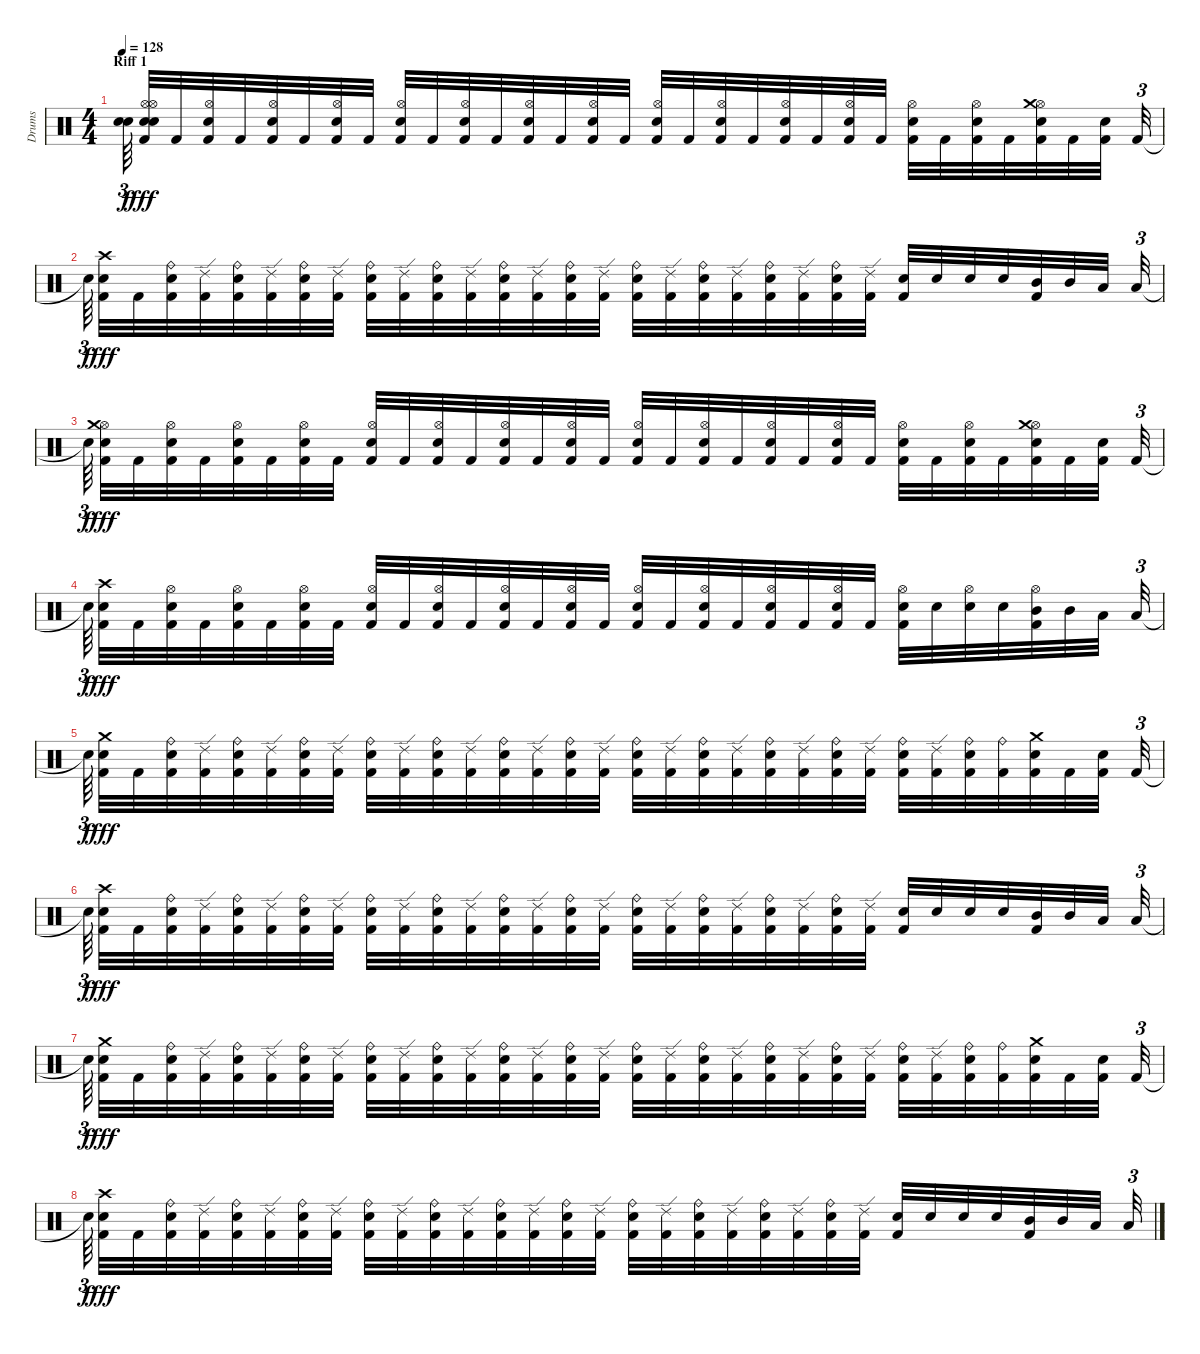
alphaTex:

\track ("Drums" "Drums") {instrument percussion}
\staff {score}
\articulation defaults
\ts (4 4)
\section ("" "Riff 1")
\tempo 128
\clef neutral
\ks c
("Snare (hit)"{t} "Snare (hit)"{t}).64{tu (3 2) dy f beam splitsecondary} ("Snare (hit) 2" "Hi-Hat (open)" "Kick (hit) 2" "Snare (hit) 2" "Hi-Hat (open)").32{dy fff} "Kick (hit) 2".32 ("Kick (hit) 2" "Snare (hit) 2" "Hi-Hat (open)").32 "Kick (hit) 2".32 ("Kick (hit) 2" "Snare (hit) 2" "Hi-Hat (open)").32 "Kick (hit) 2".32 ("Kick (hit) 2" "Snare (hit) 2" "Hi-Hat (open)").32 "Kick (hit) 2".32 ("Kick (hit) 2" "Snare (hit) 2" "Hi-Hat (open)").32 "Kick (hit) 2".32 ("Kick (hit) 2" "Snare (hit) 2" "Hi-Hat (open)").32 "Kick (hit) 2".32 ("Kick (hit) 2" "Snare (hit) 2" "Hi-Hat (open)").32 "Kick (hit) 2".32 ("Kick (hit) 2" "Snare (hit) 2" "Hi-Hat (open)").32 "Kick (hit) 2".32 ("Kick (hit) 2" "Snare (hit) 2" "Hi-Hat (open)").32 "Kick (hit) 2".32 ("Kick (hit) 2" "Snare (hit) 2" "Hi-Hat (open)").32 "Kick (hit) 2".32 ("Kick (hit) 2" "Snare (hit) 2" "Hi-Hat (open)").32 "Kick (hit) 2".32 ("Kick (hit) 2" "Snare (hit) 2" "Hi-Hat (open)").32 "Kick (hit) 2".32 ("Kick (hit) 2" "Snare (hit) 2" "Hi-Hat (open)").32 "Kick (hit) 2".32 ("Kick (hit) 2" "Snare (hit) 2" "Hi-Hat (open)").32 "Kick (hit) 2".32 ("Kick (hit) 2" "Snare (hit) 2" "Hi-Hat (open)" "Crash medium (hit)").32 "Kick (hit) 2".32 ("Kick (hit) 2" "Snare (hit) 2").32{beam splitsecondary} "Kick (hit) 2".32{tu (3 2)} |
"Snare (hit)"{t}.64{tu (3 2) dy f beam splitsecondary} ("Kick (hit) 2" "Snare (hit) 2" "Crash high (hit)").32{dy fff} "Kick (hit) 2".32 ("Kick (hit) 2" "Snare (hit) 2" "Ride (bell)").32 ("Kick (hit) 2" "Ride (edge) 2").32 ("Kick (hit) 2" "Snare (hit) 2" "Ride (bell)").32 ("Kick (hit) 2" "Ride (edge) 2").32 ("Kick (hit) 2" "Snare (hit) 2" "Ride (bell)").32 ("Kick (hit) 2" "Ride (edge) 2").32 ("Kick (hit) 2" "Snare (hit) 2" "Ride (bell)").32 ("Kick (hit) 2" "Ride (edge) 2").32 ("Kick (hit) 2" "Snare (hit) 2" "Ride (bell)").32 ("Kick (hit) 2" "Ride (edge) 2").32 ("Kick (hit) 2" "Snare (hit) 2" "Ride (bell)").32 ("Kick (hit) 2" "Ride (edge) 2").32 ("Kick (hit) 2" "Snare (hit) 2" "Ride (bell)").32 ("Kick (hit) 2" "Ride (edge) 2").32 ("Kick (hit) 2" "Snare (hit) 2" "Ride (bell)").32 ("Kick (hit) 2" "Ride (edge) 2").32 ("Kick (hit) 2" "Snare (hit) 2" "Ride (bell)").32 ("Kick (hit) 2" "Ride (edge) 2").32 ("Kick (hit) 2" "Snare (hit) 2" "Ride (bell)").32 ("Kick (hit) 2" "Ride (edge) 2").32 ("Kick (hit) 2" "Snare (hit) 2" "Ride (bell)").32 ("Kick (hit) 2" "Ride (edge) 2").32 ("Kick (hit) 2" "Snare (hit) 2").32 "Snare (hit) 2".32 "Snare (hit) 2".32 "Snare (hit) 2".32 ("Kick (hit) 2" "Mid Tom (hit)").32 "Mid Tom (hit)".32 "Low Tom (hit)".32{beam splitsecondary} "Low Tom (hit)".32{tu (3 2)} |
"Snare (hit)"{t}.64{tu (3 2) dy f beam splitsecondary} ("Kick (hit) 2" "Snare (hit) 2" "Hi-Hat (open)" "Crash medium (hit)").32{dy fff} "Kick (hit) 2".32 ("Kick (hit) 2" "Snare (hit) 2" "Hi-Hat (open)").32 "Kick (hit) 2".32 ("Kick (hit) 2" "Snare (hit) 2" "Hi-Hat (open)").32 "Kick (hit) 2".32 ("Kick (hit) 2" "Snare (hit) 2" "Hi-Hat (open)").32 "Kick (hit) 2".32 ("Kick (hit) 2" "Snare (hit) 2" "Hi-Hat (open)").32 "Kick (hit) 2".32 ("Kick (hit) 2" "Snare (hit) 2" "Hi-Hat (open)").32 "Kick (hit) 2".32 ("Kick (hit) 2" "Snare (hit) 2" "Hi-Hat (open)").32 "Kick (hit) 2".32 ("Kick (hit) 2" "Snare (hit) 2" "Hi-Hat (open)").32 "Kick (hit) 2".32 ("Kick (hit) 2" "Snare (hit) 2" "Hi-Hat (open)").32 "Kick (hit) 2".32 ("Kick (hit) 2" "Snare (hit) 2" "Hi-Hat (open)").32 "Kick (hit) 2".32 ("Kick (hit) 2" "Snare (hit) 2" "Hi-Hat (open)").32 "Kick (hit) 2".32 ("Kick (hit) 2" "Snare (hit) 2" "Hi-Hat (open)").32 "Kick (hit) 2".32 ("Kick (hit) 2" "Snare (hit) 2" "Hi-Hat (open)").32 "Kick (hit) 2".32 ("Kick (hit) 2" "Snare (hit) 2" "Hi-Hat (open)").32 "Kick (hit) 2".32 ("Kick (hit) 2" "Snare (hit) 2" "Hi-Hat (open)" "Crash medium (hit)").32 "Kick (hit) 2".32 ("Kick (hit) 2" "Snare (hit) 2").32{beam splitsecondary} "Kick (hit) 2".32{tu (3 2)} |
"Snare (hit)"{t}.64{tu (3 2) dy f beam splitsecondary} ("Kick (hit) 2" "Snare (hit) 2" "Crash high (hit)").32{dy fff} "Kick (hit) 2".32 ("Kick (hit) 2" "Snare (hit) 2" "Hi-Hat (open)").32 "Kick (hit) 2".32 ("Kick (hit) 2" "Snare (hit) 2" "Hi-Hat (open)").32 "Kick (hit) 2".32 ("Kick (hit) 2" "Snare (hit) 2" "Hi-Hat (open)").32 "Kick (hit) 2".32 ("Kick (hit) 2" "Snare (hit) 2" "Hi-Hat (open)").32 "Kick (hit) 2".32 ("Kick (hit) 2" "Snare (hit) 2" "Hi-Hat (open)").32 "Kick (hit) 2".32 ("Kick (hit) 2" "Snare (hit) 2" "Hi-Hat (open)").32 "Kick (hit) 2".32 ("Kick (hit) 2" "Snare (hit) 2" "Hi-Hat (open)").32 "Kick (hit) 2".32 ("Kick (hit) 2" "Snare (hit) 2" "Hi-Hat (open)").32 "Kick (hit) 2".32 ("Kick (hit) 2" "Snare (hit) 2" "Hi-Hat (open)").32 "Kick (hit) 2".32 ("Kick (hit) 2" "Snare (hit) 2" "Hi-Hat (open)").32 "Kick (hit) 2".32 ("Kick (hit) 2" "Snare (hit) 2" "Hi-Hat (open)").32 "Kick (hit) 2".32 ("Kick (hit) 2" "Snare (hit) 2" "Hi-Hat (open)").32 "Snare (hit) 2".32 ("Snare (hit) 2" "Hi-Hat (open)").32 "Snare (hit) 2".32 ("Kick (hit) 2" "Hi-Hat (open)" "Mid Tom (hit)").32 "Mid Tom (hit)".32 "Low Tom (hit)".32{beam splitsecondary} "Low Tom (hit)".32{tu (3 2)} |
"Snare (hit)"{t}.64{tu (3 2) dy f beam splitsecondary} ("Kick (hit) 2" "Snare (hit) 2" "Crash medium (hit)").32{dy fff} "Kick (hit) 2".32 ("Kick (hit) 2" "Snare (hit) 2" "Ride (bell)").32 ("Kick (hit) 2" "Ride (edge) 2").32 ("Kick (hit) 2" "Snare (hit) 2" "Ride (bell)").32 ("Kick (hit) 2" "Ride (edge) 2").32 ("Kick (hit) 2" "Snare (hit) 2" "Ride (bell)").32 ("Kick (hit) 2" "Ride (edge) 2").32 ("Kick (hit) 2" "Snare (hit) 2" "Ride (bell)").32 ("Kick (hit) 2" "Ride (edge) 2").32 ("Kick (hit) 2" "Snare (hit) 2" "Ride (bell)").32 ("Kick (hit) 2" "Ride (edge) 2").32 ("Kick (hit) 2" "Snare (hit) 2" "Ride (bell)").32 ("Kick (hit) 2" "Ride (edge) 2").32 ("Kick (hit) 2" "Snare (hit) 2" "Ride (bell)").32 ("Kick (hit) 2" "Ride (edge) 2").32 ("Kick (hit) 2" "Snare (hit) 2" "Ride (bell)").32 ("Kick (hit) 2" "Ride (edge) 2").32 ("Kick (hit) 2" "Snare (hit) 2" "Ride (bell)").32 ("Kick (hit) 2" "Ride (edge) 2").32 ("Kick (hit) 2" "Snare (hit) 2" "Ride (bell)").32 ("Kick (hit) 2" "Ride (edge) 2").32 ("Kick (hit) 2" "Snare (hit) 2" "Ride (bell)").32 ("Kick (hit) 2" "Ride (edge) 2").32 ("Kick (hit) 2" "Snare (hit) 2" "Ride (bell)").32 ("Kick (hit) 2" "Ride (edge) 2").32 ("Kick (hit) 2" "Snare (hit) 2" "Ride (bell)").32 ("Kick (hit) 2" "Ride (bell)").32 ("Kick (hit) 2" "Snare (hit) 2" "Crash medium (hit)").32 "Kick (hit) 2".32 ("Kick (hit) 2" "Snare (hit) 2").32{beam splitsecondary} "Kick (hit) 2".32{tu (3 2)} |
"Snare (hit)"{t}.64{tu (3 2) dy f beam splitsecondary} ("Kick (hit) 2" "Snare (hit) 2" "Crash high (hit)").32{dy fff} "Kick (hit) 2".32 ("Kick (hit) 2" "Snare (hit) 2" "Ride (bell)").32 ("Kick (hit) 2" "Ride (edge) 2").32 ("Kick (hit) 2" "Snare (hit) 2" "Ride (bell)").32 ("Kick (hit) 2" "Ride (edge) 2").32 ("Kick (hit) 2" "Snare (hit) 2" "Ride (bell)").32 ("Kick (hit) 2" "Ride (edge) 2").32 ("Kick (hit) 2" "Snare (hit) 2" "Ride (bell)").32 ("Kick (hit) 2" "Ride (edge) 2").32 ("Kick (hit) 2" "Snare (hit) 2" "Ride (bell)").32 ("Kick (hit) 2" "Ride (edge) 2").32 ("Kick (hit) 2" "Snare (hit) 2" "Ride (bell)").32 ("Kick (hit) 2" "Ride (edge) 2").32 ("Kick (hit) 2" "Snare (hit) 2" "Ride (bell)").32 ("Kick (hit) 2" "Ride (edge) 2").32 ("Kick (hit) 2" "Snare (hit) 2" "Ride (bell)").32 ("Kick (hit) 2" "Ride (edge) 2").32 ("Kick (hit) 2" "Snare (hit) 2" "Ride (bell)").32 ("Kick (hit) 2" "Ride (edge) 2").32 ("Kick (hit) 2" "Snare (hit) 2" "Ride (bell)").32 ("Kick (hit) 2" "Ride (edge) 2").32 ("Kick (hit) 2" "Snare (hit) 2" "Ride (bell)").32 ("Kick (hit) 2" "Ride (edge) 2").32 ("Kick (hit) 2" "Snare (hit) 2").32 "Snare (hit) 2".32 "Snare (hit) 2".32 "Snare (hit) 2".32 ("Kick (hit) 2" "Mid Tom (hit)").32 "Mid Tom (hit)".32 "Low Tom (hit)".32{beam splitsecondary} "Low Tom (hit)".32{tu (3 2)} |
"Snare (hit)"{t}.64{tu (3 2) dy f beam splitsecondary} ("Kick (hit) 2" "Snare (hit) 2" "Crash medium (hit)").32{dy fff} "Kick (hit) 2".32 ("Kick (hit) 2" "Snare (hit) 2" "Ride (bell)").32 ("Kick (hit) 2" "Ride (edge) 2").32 ("Kick (hit) 2" "Snare (hit) 2" "Ride (bell)").32 ("Kick (hit) 2" "Ride (edge) 2").32 ("Kick (hit) 2" "Snare (hit) 2" "Ride (bell)").32 ("Kick (hit) 2" "Ride (edge) 2").32 ("Kick (hit) 2" "Snare (hit) 2" "Ride (bell)").32 ("Kick (hit) 2" "Ride (edge) 2").32 ("Kick (hit) 2" "Snare (hit) 2" "Ride (bell)").32 ("Kick (hit) 2" "Ride (edge) 2").32 ("Kick (hit) 2" "Snare (hit) 2" "Ride (bell)").32 ("Kick (hit) 2" "Ride (edge) 2").32 ("Kick (hit) 2" "Snare (hit) 2" "Ride (bell)").32 ("Kick (hit) 2" "Ride (edge) 2").32 ("Kick (hit) 2" "Snare (hit) 2" "Ride (bell)").32 ("Kick (hit) 2" "Ride (edge) 2").32 ("Kick (hit) 2" "Snare (hit) 2" "Ride (bell)").32 ("Kick (hit) 2" "Ride (edge) 2").32 ("Kick (hit) 2" "Snare (hit) 2" "Ride (bell)").32 ("Kick (hit) 2" "Ride (edge) 2").32 ("Kick (hit) 2" "Snare (hit) 2" "Ride (bell)").32 ("Kick (hit) 2" "Ride (edge) 2").32 ("Kick (hit) 2" "Snare (hit) 2" "Ride (bell)").32 ("Kick (hit) 2" "Ride (edge) 2").32 ("Kick (hit) 2" "Snare (hit) 2" "Ride (bell)").32 ("Kick (hit) 2" "Ride (bell)").32 ("Kick (hit) 2" "Snare (hit) 2" "Crash medium (hit)").32 "Kick (hit) 2".32 ("Kick (hit) 2" "Snare (hit) 2").32{beam splitsecondary} "Kick (hit) 2".32{tu (3 2)} |
"Snare (hit)"{t}.64{tu (3 2) dy f beam splitsecondary} ("Kick (hit) 2" "Snare (hit) 2" "Crash high (hit)").32{dy fff} "Kick (hit) 2".32 ("Kick (hit) 2" "Snare (hit) 2" "Ride (bell)").32 ("Kick (hit) 2" "Ride (edge) 2").32 ("Kick (hit) 2" "Snare (hit) 2" "Ride (bell)").32 ("Kick (hit) 2" "Ride (edge) 2").32 ("Kick (hit) 2" "Snare (hit) 2" "Ride (bell)").32 ("Kick (hit) 2" "Ride (edge) 2").32 ("Kick (hit) 2" "Snare (hit) 2" "Ride (bell)").32 ("Kick (hit) 2" "Ride (edge) 2").32 ("Kick (hit) 2" "Snare (hit) 2" "Ride (bell)").32 ("Kick (hit) 2" "Ride (edge) 2").32 ("Kick (hit) 2" "Snare (hit) 2" "Ride (bell)").32 ("Kick (hit) 2" "Ride (edge) 2").32 ("Kick (hit) 2" "Snare (hit) 2" "Ride (bell)").32 ("Kick (hit) 2" "Ride (edge) 2").32 ("Kick (hit) 2" "Snare (hit) 2" "Ride (bell)").32 ("Kick (hit) 2" "Ride (edge) 2").32 ("Kick (hit) 2" "Snare (hit) 2" "Ride (bell)").32 ("Kick (hit) 2" "Ride (edge) 2").32 ("Kick (hit) 2" "Snare (hit) 2" "Ride (bell)").32 ("Kick (hit) 2" "Ride (edge) 2").32 ("Kick (hit) 2" "Snare (hit) 2" "Ride (bell)").32 ("Kick (hit) 2" "Ride (edge) 2").32 ("Kick (hit) 2" "Snare (hit) 2").32 "Snare (hit) 2".32 "Snare (hit) 2".32 "Snare (hit) 2".32 ("Kick (hit) 2" "Mid Tom (hit)").32 "Mid Tom (hit)".32 "Low Tom (hit)".32{beam splitsecondary} "Low Tom (hit)".32{tu (3 2)}
